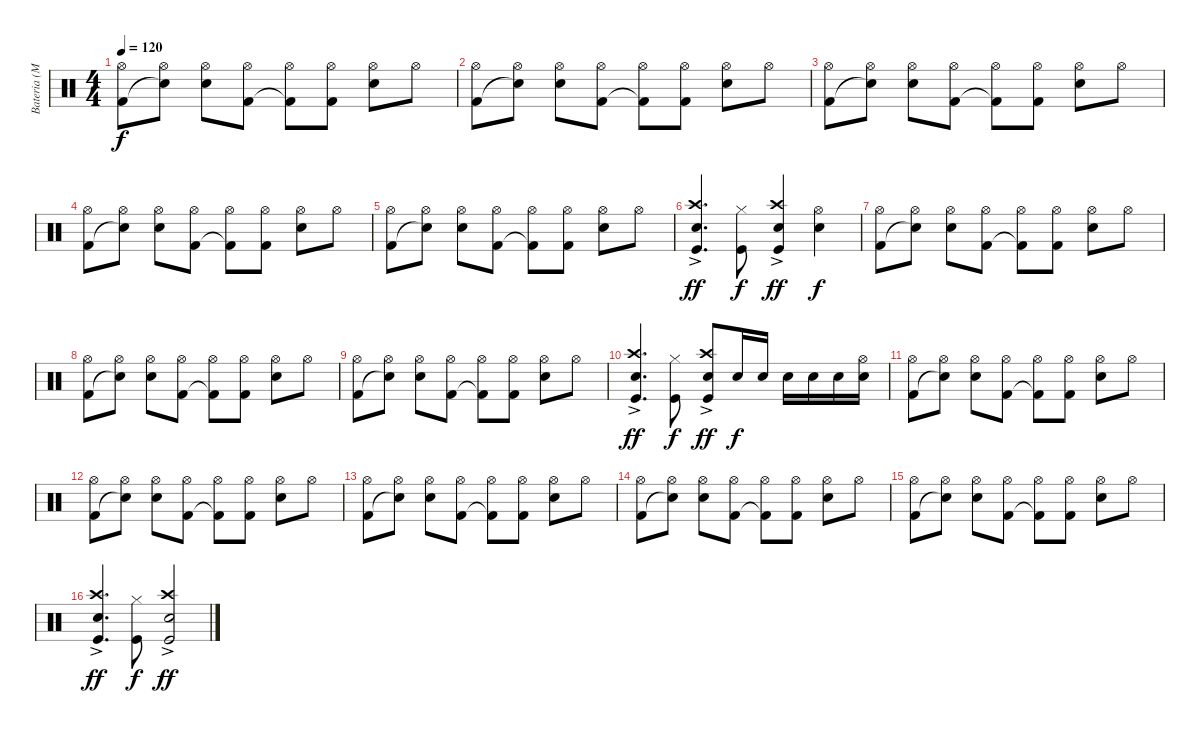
\track ("Bateria (Mauricio Llona)" "Bateria (M") {instrument percussion}
\staff {score}
\articulation defaults
\ts (4 4)
\tempo 120
\clef neutral
\ks c
("Hi-Hat (open)" "Kick (hit) 2").8{dy f} ("Hi-Hat (open)" "Snare (hit)"{t}).8 ("Hi-Hat (open)" "Electric Snare (hit)").8 ("Hi-Hat (open)" "Kick (hit) 2").8 ("Hi-Hat (open)" "Kick (hit) 2"{t}).8 ("Hi-Hat (open)" "Kick (hit) 2").8 ("Hi-Hat (open)" "Electric Snare (hit)").8 "Hi-Hat (open)".8 |
("Hi-Hat (open)" "Kick (hit) 2").8 ("Hi-Hat (open)" "Snare (hit)"{t}).8 ("Hi-Hat (open)" "Electric Snare (hit)").8 ("Hi-Hat (open)" "Kick (hit) 2").8 ("Hi-Hat (open)" "Kick (hit) 2"{t}).8 ("Hi-Hat (open)" "Kick (hit) 2").8 ("Hi-Hat (open)" "Electric Snare (hit)").8 "Hi-Hat (open)".8 |
("Hi-Hat (open)" "Kick (hit) 2").8 ("Hi-Hat (open)" "Snare (hit)"{t}).8 ("Hi-Hat (open)" "Electric Snare (hit)").8 ("Hi-Hat (open)" "Kick (hit) 2").8 ("Hi-Hat (open)" "Kick (hit) 2"{t}).8 ("Hi-Hat (open)" "Kick (hit) 2").8 ("Hi-Hat (open)" "Electric Snare (hit)").8 "Hi-Hat (open)".8 |
("Hi-Hat (open)" "Kick (hit) 2").8 ("Hi-Hat (open)" "Snare (hit)"{t}).8 ("Hi-Hat (open)" "Electric Snare (hit)").8 ("Hi-Hat (open)" "Kick (hit) 2").8 ("Hi-Hat (open)" "Kick (hit) 2"{t}).8 ("Hi-Hat (open)" "Kick (hit) 2").8 ("Hi-Hat (open)" "Electric Snare (hit)").8 "Hi-Hat (open)".8 |
("Hi-Hat (open)" "Kick (hit) 2").8 ("Hi-Hat (open)" "Snare (hit)"{t}).8 ("Hi-Hat (open)" "Electric Snare (hit)").8 ("Hi-Hat (open)" "Kick (hit) 2").8 ("Hi-Hat (open)" "Kick (hit) 2"{t}).8 ("Hi-Hat (open)" "Kick (hit) 2").8 ("Hi-Hat (open)" "Electric Snare (hit)").8 "Hi-Hat (open)".8 |
("Crash high (hit)" "Snare (hit) 2"{ac} "Kick (hit)").4{d dy ff} ("Hi-Hat (closed)" "Kick (hit)").8{dy f} ("Crash high (hit)" "Snare (hit) 2"{ac} "Kick (hit)").4{dy ff} ("Hi-Hat (open)" "Snare (hit) 2").4{dy f} |
("Hi-Hat (open)" "Kick (hit) 2").8 ("Hi-Hat (open)" "Snare (hit)"{t}).8 ("Hi-Hat (open)" "Electric Snare (hit)").8 ("Hi-Hat (open)" "Kick (hit) 2").8 ("Hi-Hat (open)" "Kick (hit) 2"{t}).8 ("Hi-Hat (open)" "Kick (hit) 2").8 ("Hi-Hat (open)" "Electric Snare (hit)").8 "Hi-Hat (open)".8 |
("Hi-Hat (open)" "Kick (hit) 2").8 ("Hi-Hat (open)" "Snare (hit)"{t}).8 ("Hi-Hat (open)" "Electric Snare (hit)").8 ("Hi-Hat (open)" "Kick (hit) 2").8 ("Hi-Hat (open)" "Kick (hit) 2"{t}).8 ("Hi-Hat (open)" "Kick (hit) 2").8 ("Hi-Hat (open)" "Electric Snare (hit)").8 "Hi-Hat (open)".8 |
("Hi-Hat (open)" "Kick (hit) 2").8 ("Hi-Hat (open)" "Snare (hit)"{t}).8 ("Hi-Hat (open)" "Electric Snare (hit)").8 ("Hi-Hat (open)" "Kick (hit) 2").8 ("Hi-Hat (open)" "Kick (hit) 2"{t}).8 ("Hi-Hat (open)" "Kick (hit) 2").8 ("Hi-Hat (open)" "Electric Snare (hit)").8 "Hi-Hat (open)".8 |
("Crash high (hit)" "Snare (hit) 2"{ac} "Kick (hit)").4{d dy ff} ("Hi-Hat (closed)" "Kick (hit)").8{dy f} ("Crash high (hit)" "Snare (hit) 2"{ac} "Kick (hit)").8{dy ff} "Snare (hit) 2".16{dy f} "Snare (hit) 2".16 "Snare (hit) 2".16 "Snare (hit) 2".16 "Snare (hit) 2".16 ("Hi-Hat (open)" "Snare (hit) 2").16 |
("Hi-Hat (open)" "Kick (hit) 2").8 ("Hi-Hat (open)" "Snare (hit)"{t}).8 ("Hi-Hat (open)" "Electric Snare (hit)").8 ("Hi-Hat (open)" "Kick (hit) 2").8 ("Hi-Hat (open)" "Kick (hit) 2"{t}).8 ("Hi-Hat (open)" "Kick (hit) 2").8 ("Hi-Hat (open)" "Electric Snare (hit)").8 "Hi-Hat (open)".8 |
("Hi-Hat (open)" "Kick (hit) 2").8 ("Hi-Hat (open)" "Snare (hit)"{t}).8 ("Hi-Hat (open)" "Electric Snare (hit)").8 ("Hi-Hat (open)" "Kick (hit) 2").8 ("Hi-Hat (open)" "Kick (hit) 2"{t}).8 ("Hi-Hat (open)" "Kick (hit) 2").8 ("Hi-Hat (open)" "Electric Snare (hit)").8 "Hi-Hat (open)".8 |
("Hi-Hat (open)" "Kick (hit) 2").8 ("Hi-Hat (open)" "Snare (hit)"{t}).8 ("Hi-Hat (open)" "Electric Snare (hit)").8 ("Hi-Hat (open)" "Kick (hit) 2").8 ("Hi-Hat (open)" "Kick (hit) 2"{t}).8 ("Hi-Hat (open)" "Kick (hit) 2").8 ("Hi-Hat (open)" "Electric Snare (hit)").8 "Hi-Hat (open)".8 |
("Hi-Hat (open)" "Kick (hit) 2").8 ("Hi-Hat (open)" "Snare (hit)"{t}).8 ("Hi-Hat (open)" "Electric Snare (hit)").8 ("Hi-Hat (open)" "Kick (hit) 2").8 ("Hi-Hat (open)" "Kick (hit) 2"{t}).8 ("Hi-Hat (open)" "Kick (hit) 2").8 ("Hi-Hat (open)" "Electric Snare (hit)").8 "Hi-Hat (open)".8 |
("Hi-Hat (open)" "Kick (hit) 2").8 ("Hi-Hat (open)" "Snare (hit)"{t}).8 ("Hi-Hat (open)" "Electric Snare (hit)").8 ("Hi-Hat (open)" "Kick (hit) 2").8 ("Hi-Hat (open)" "Kick (hit) 2"{t}).8 ("Hi-Hat (open)" "Kick (hit) 2").8 ("Hi-Hat (open)" "Electric Snare (hit)").8 "Hi-Hat (open)".8 |
("Crash high (hit)" "Snare (hit) 2"{ac} "Kick (hit)").4{d dy ff} ("Hi-Hat (closed)" "Kick (hit)").8{dy f} ("Crash high (hit)" "Snare (hit) 2"{ac} "Kick (hit)").2{dy ff}
